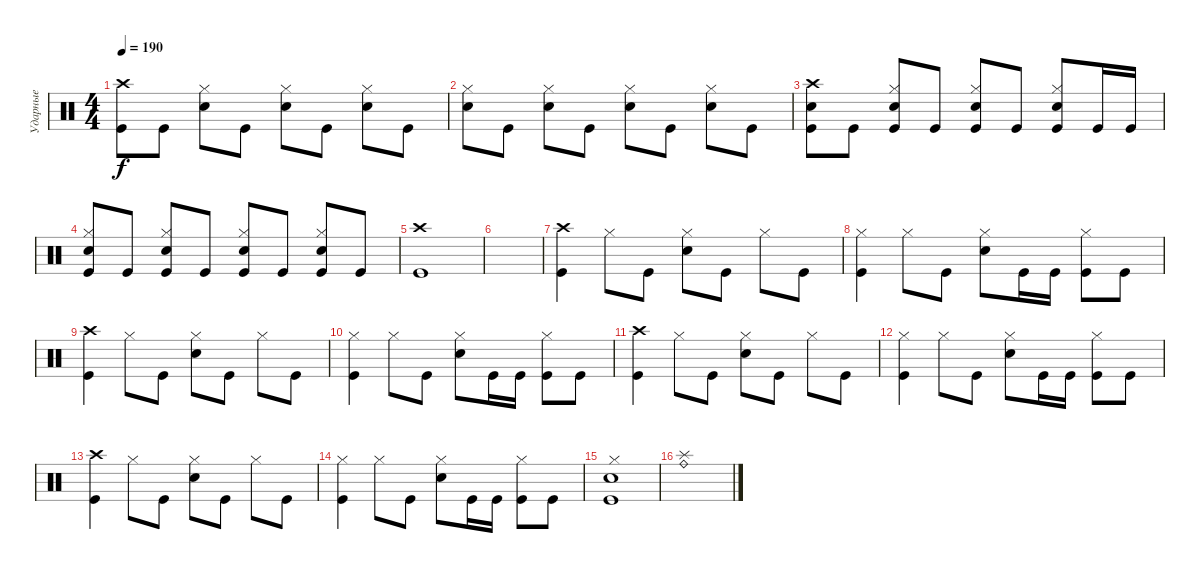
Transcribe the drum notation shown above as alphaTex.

\track ("Ударные" "Ударные") {instrument percussion}
\staff {score}
\articulation defaults
\ts (4 4)
\tempo 190
\clef neutral
\ks c
("Crash high (hit)" "Kick (hit)").8{dy f} "Kick (hit)".8 ("Hi-Hat (closed)" "Electric Snare (hit)").8 "Kick (hit)".8 ("Hi-Hat (closed)" "Electric Snare (hit)").8 "Kick (hit)".8 ("Hi-Hat (closed)" "Electric Snare (hit)").8 "Kick (hit)".8 |
("Hi-Hat (closed)" "Electric Snare (hit)").8 "Kick (hit)".8 ("Hi-Hat (closed)" "Electric Snare (hit)").8 "Kick (hit)".8 ("Hi-Hat (closed)" "Electric Snare (hit)").8 "Kick (hit)".8 ("Hi-Hat (closed)" "Electric Snare (hit)").8 "Kick (hit)".8 |
("Crash high (hit)" "Electric Snare (hit)" "Kick (hit)").8 "Kick (hit)".8 ("Hi-Hat (closed)" "Electric Snare (hit)" "Kick (hit)").8 "Kick (hit)".8 ("Hi-Hat (closed)" "Electric Snare (hit)" "Kick (hit)").8 "Kick (hit)".8 ("Hi-Hat (closed)" "Electric Snare (hit)" "Kick (hit)").8 "Kick (hit)".16 "Kick (hit)".16 |
("Hi-Hat (closed)" "Electric Snare (hit)" "Kick (hit)").8 "Kick (hit)".8 ("Hi-Hat (closed)" "Electric Snare (hit)" "Kick (hit)").8 "Kick (hit)".8 ("Hi-Hat (closed)" "Electric Snare (hit)" "Kick (hit)").8 "Kick (hit)".8 ("Hi-Hat (closed)" "Electric Snare (hit)" "Kick (hit)").8 "Kick (hit)".8 |
("Crash high (hit)" "Kick (hit)").1 |
|
("Crash high (hit)" "Kick (hit)").4 "Hi-Hat (closed)".8 "Kick (hit)".8 ("Hi-Hat (closed)" "Electric Snare (hit)").8 "Kick (hit)".8 "Hi-Hat (closed)".8 "Kick (hit)".8 |
("Hi-Hat (closed)" "Kick (hit)").4 "Hi-Hat (closed)".8 "Kick (hit)".8 ("Hi-Hat (closed)" "Electric Snare (hit)").8 "Kick (hit)".16 "Kick (hit)".16 ("Hi-Hat (closed)" "Kick (hit)").8 "Kick (hit)".8 |
("Crash high (hit)" "Kick (hit)").4 "Hi-Hat (closed)".8 "Kick (hit)".8 ("Hi-Hat (closed)" "Electric Snare (hit)").8 "Kick (hit)".8 "Hi-Hat (closed)".8 "Kick (hit)".8 |
("Hi-Hat (closed)" "Kick (hit)").4 "Hi-Hat (closed)".8 "Kick (hit)".8 ("Hi-Hat (closed)" "Electric Snare (hit)").8 "Kick (hit)".16 "Kick (hit)".16 ("Hi-Hat (closed)" "Kick (hit)").8 "Kick (hit)".8 |
("Crash high (hit)" "Kick (hit)").4 "Hi-Hat (closed)".8 "Kick (hit)".8 ("Hi-Hat (closed)" "Electric Snare (hit)").8 "Kick (hit)".8 "Hi-Hat (closed)".8 "Kick (hit)".8 |
("Hi-Hat (closed)" "Kick (hit)").4 "Hi-Hat (closed)".8 "Kick (hit)".8 ("Hi-Hat (closed)" "Electric Snare (hit)").8 "Kick (hit)".16 "Kick (hit)".16 ("Hi-Hat (closed)" "Kick (hit)").8 "Kick (hit)".8 |
("Crash high (hit)" "Kick (hit)").4 "Hi-Hat (closed)".8 "Kick (hit)".8 ("Hi-Hat (closed)" "Electric Snare (hit)").8 "Kick (hit)".8 "Hi-Hat (closed)".8 "Kick (hit)".8 |
("Hi-Hat (closed)" "Kick (hit)").4 "Hi-Hat (closed)".8 "Kick (hit)".8 ("Hi-Hat (closed)" "Electric Snare (hit)").8 "Kick (hit)".16 "Kick (hit)".16 ("Hi-Hat (closed)" "Kick (hit)").8 "Kick (hit)".8 |
("Hi-Hat (closed)" "Electric Snare (hit)" "Kick (hit)").1 |
("Ride (bell)" "Splash (hit)").1
